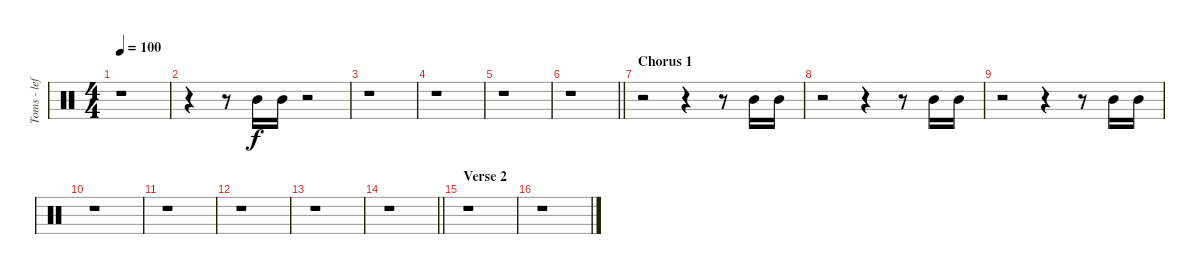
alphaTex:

\track ("Toms - left" "Toms - lef") {instrument percussion}
\staff {score}
\articulation defaults
\ts (4 4)
\tempo 100
\clef neutral
\ks c
r.1{dy f} |
r.4 r.8 "Mid Tom (hit)".16 "Mid Tom (hit)".16 r.2 |
r.1 |
r.1 |
r.1 |
\barLineRight lightlight
r.1 |
\section ("" "Chorus 1")
r.2 r.4 r.8 "Mid Tom (hit)".16 "Mid Tom (hit)".16 |
r.2 r.4 r.8 "Mid Tom (hit)".16 "Mid Tom (hit)".16 |
r.2 r.4 r.8 "Mid Tom (hit)".16 "Mid Tom (hit)".16 |
r.1 |
r.1 |
r.1 |
r.1 |
\barLineRight lightlight
r.1 |
\section ("" "Verse 2")
r.1 |
r.1
